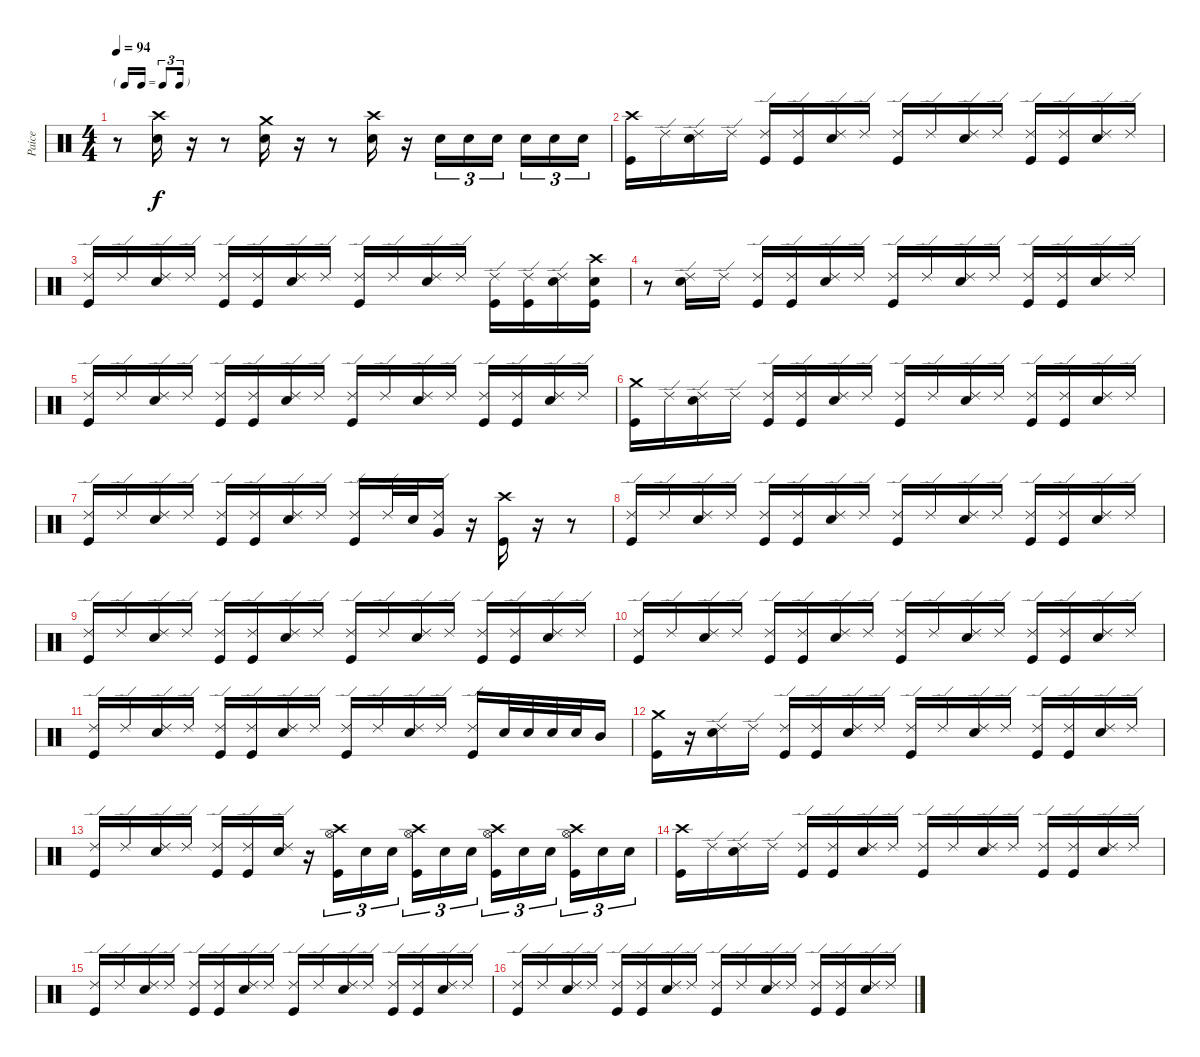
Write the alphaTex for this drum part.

\track ("Paice" "Paice") {instrument percussion}
\staff {score}
\articulation defaults
\ts (4 4)
\tf triplet16th
\tempo 94
\clef neutral
\ks c
r.8{dy f} ("Crash high (hit)" "Snare (hit) 2").16 r.16 r.8 ("Crash medium (hit)" "Snare (hit) 2").16 r.16 r.8 ("Crash high (hit)" "Snare (hit) 2").16 r.16 "Snare (hit) 2".16{tu (3 2)} "Snare (hit) 2".16{tu (3 2)} "Snare (hit) 2".16{tu (3 2) beam splitsecondary} "Snare (hit) 2".16{tu (3 2)} "Snare (hit) 2".16{tu (3 2)} "Snare (hit) 2".16{tu (3 2)} |
("Crash high (hit)" "Kick (hit)").16 "Ride (edge) 2".16 ("Ride (edge) 2" "Snare (hit) 2").16 "Ride (edge) 2".16 ("Ride (edge) 2" "Kick (hit)").16 ("Ride (edge) 2" "Kick (hit)").16 ("Ride (edge) 2" "Snare (hit) 2").16 "Ride (edge) 2".16 ("Ride (edge) 2" "Kick (hit)").16 "Ride (edge) 2".16 ("Ride (edge) 2" "Snare (hit) 2").16 "Ride (edge) 2".16 ("Ride (edge) 2" "Kick (hit)").16 ("Ride (edge) 2" "Kick (hit)").16 ("Ride (edge) 2" "Snare (hit) 2").16 "Ride (edge) 2".16 |
("Ride (edge) 2" "Kick (hit)").16 "Ride (edge) 2".16 ("Ride (edge) 2" "Snare (hit) 2").16 "Ride (edge) 2".16 ("Ride (edge) 2" "Kick (hit)").16 ("Ride (edge) 2" "Kick (hit)").16 ("Ride (edge) 2" "Snare (hit) 2").16 "Ride (edge) 2".16 ("Ride (edge) 2" "Kick (hit)").16 "Ride (edge) 2".16 ("Ride (edge) 2" "Snare (hit) 2").16 "Ride (edge) 2".16 ("Ride (edge) 2" "Kick (hit)").16 ("Ride (edge) 2" "Kick (hit)").16 ("Ride (edge) 2" "Snare (hit) 2").16 ("Crash high (hit)" "Snare (hit) 2" "Kick (hit)").16 |
r.8 ("Ride (edge) 2" "Snare (hit) 2").16 "Ride (edge) 2".16 ("Ride (edge) 2" "Kick (hit)").16 ("Ride (edge) 2" "Kick (hit)").16 ("Ride (edge) 2" "Snare (hit) 2").16 "Ride (edge) 2".16 ("Ride (edge) 2" "Kick (hit)").16 "Ride (edge) 2".16 ("Ride (edge) 2" "Snare (hit) 2").16 "Ride (edge) 2".16 ("Ride (edge) 2" "Kick (hit)").16 ("Ride (edge) 2" "Kick (hit)").16 ("Ride (edge) 2" "Snare (hit) 2").16 "Ride (edge) 2".16 |
("Ride (edge) 2" "Kick (hit)").16 "Ride (edge) 2".16 ("Ride (edge) 2" "Snare (hit) 2").16 "Ride (edge) 2".16 ("Ride (edge) 2" "Kick (hit)").16 ("Ride (edge) 2" "Kick (hit)").16 ("Ride (edge) 2" "Snare (hit) 2").16 "Ride (edge) 2".16 ("Ride (edge) 2" "Kick (hit)").16 "Ride (edge) 2".16 ("Ride (edge) 2" "Snare (hit) 2").16 "Ride (edge) 2".16 ("Ride (edge) 2" "Kick (hit)").16 ("Ride (edge) 2" "Kick (hit)").16 ("Ride (edge) 2" "Snare (hit) 2").16 "Ride (edge) 2".16 |
("Crash medium (hit)" "Kick (hit)").16 "Ride (edge) 2".16 ("Ride (edge) 2" "Snare (hit) 2").16 "Ride (edge) 2".16 ("Ride (edge) 2" "Kick (hit)").16 ("Ride (edge) 2" "Kick (hit)").16 ("Ride (edge) 2" "Snare (hit) 2").16 "Ride (edge) 2".16 ("Ride (edge) 2" "Kick (hit)").16 "Ride (edge) 2".16 ("Ride (edge) 2" "Snare (hit) 2").16 "Ride (edge) 2".16 ("Ride (edge) 2" "Kick (hit)").16 ("Ride (edge) 2" "Kick (hit)").16 ("Ride (edge) 2" "Snare (hit) 2").16 "Ride (edge) 2".16 |
("Ride (edge) 2" "Kick (hit)").16 "Ride (edge) 2".16 ("Ride (edge) 2" "Snare (hit) 2").16 "Ride (edge) 2".16 ("Ride (edge) 2" "Kick (hit)").16 ("Ride (edge) 2" "Kick (hit)").16 ("Ride (edge) 2" "Snare (hit) 2").16 "Ride (edge) 2".16 ("Ride (edge) 2" "Kick (hit)").16 "Ride (edge) 2".32 "Snare (hit) 2".32 ("Ride (edge) 2" "Very Low Tom (hit)").16 r.16 ("Crash high (hit)" "Kick (hit)").16 r.16 r.8 |
("Ride (edge) 2" "Kick (hit)").16 "Ride (edge) 2".16 ("Ride (edge) 2" "Snare (hit) 2").16 "Ride (edge) 2".16 ("Ride (edge) 2" "Kick (hit)").16 ("Ride (edge) 2" "Kick (hit)").16 ("Ride (edge) 2" "Snare (hit) 2").16 "Ride (edge) 2".16 ("Ride (edge) 2" "Kick (hit)").16 "Ride (edge) 2".16 ("Ride (edge) 2" "Snare (hit) 2").16 "Ride (edge) 2".16 ("Ride (edge) 2" "Kick (hit)").16 ("Ride (edge) 2" "Kick (hit)").16 ("Ride (edge) 2" "Snare (hit) 2").16 "Ride (edge) 2".16 |
("Ride (edge) 2" "Kick (hit)").16 "Ride (edge) 2".16 ("Ride (edge) 2" "Snare (hit) 2").16 "Ride (edge) 2".16 ("Ride (edge) 2" "Kick (hit)").16 ("Ride (edge) 2" "Kick (hit)").16 ("Ride (edge) 2" "Snare (hit) 2").16 "Ride (edge) 2".16 ("Ride (edge) 2" "Kick (hit)").16 "Ride (edge) 2".16 ("Ride (edge) 2" "Snare (hit) 2").16 "Ride (edge) 2".16 ("Ride (edge) 2" "Kick (hit)").16 ("Ride (edge) 2" "Kick (hit)").16 ("Ride (edge) 2" "Snare (hit) 2").16 "Ride (edge) 2".16 |
("Ride (edge) 2" "Kick (hit)").16 "Ride (edge) 2".16 ("Ride (edge) 2" "Snare (hit) 2").16 "Ride (edge) 2".16 ("Ride (edge) 2" "Kick (hit)").16 ("Ride (edge) 2" "Kick (hit)").16 ("Ride (edge) 2" "Snare (hit) 2").16 "Ride (edge) 2".16 ("Ride (edge) 2" "Kick (hit)").16 "Ride (edge) 2".16 ("Ride (edge) 2" "Snare (hit) 2").16 "Ride (edge) 2".16 ("Ride (edge) 2" "Kick (hit)").16 ("Ride (edge) 2" "Kick (hit)").16 ("Ride (edge) 2" "Snare (hit) 2").16 "Ride (edge) 2".16 |
("Ride (edge) 2" "Kick (hit)").16 "Ride (edge) 2".16 ("Ride (edge) 2" "Snare (hit) 2").16 "Ride (edge) 2".16 ("Ride (edge) 2" "Kick (hit)").16 ("Ride (edge) 2" "Kick (hit)").16 ("Ride (edge) 2" "Snare (hit) 2").16 "Ride (edge) 2".16 ("Ride (edge) 2" "Kick (hit)").16 "Ride (edge) 2".16 ("Ride (edge) 2" "Snare (hit) 2").16 "Ride (edge) 2".16 ("Ride (edge) 2" "Kick (hit)").16 "Snare (hit) 2".32 "Snare (hit) 2".32 "Snare (hit) 2".32 "Snare (hit) 2".32 "Mid Tom (hit)".16 |
("Crash medium (hit)" "Kick (hit)").16 r.16 ("Ride (edge) 2" "Snare (hit) 2").16 "Ride (edge) 2".16 ("Ride (edge) 2" "Kick (hit)").16 ("Ride (edge) 2" "Kick (hit)").16 ("Ride (edge) 2" "Snare (hit) 2").16 "Ride (edge) 2".16 ("Ride (edge) 2" "Kick (hit)").16 "Ride (edge) 2".16 ("Ride (edge) 2" "Snare (hit) 2").16 "Ride (edge) 2".16 ("Ride (edge) 2" "Kick (hit)").16 ("Ride (edge) 2" "Kick (hit)").16 ("Ride (edge) 2" "Snare (hit) 2").16 "Ride (edge) 2".16 |
("Ride (edge) 2" "Kick (hit)").16 "Ride (edge) 2".16 ("Ride (edge) 2" "Snare (hit) 2").16 "Ride (edge) 2".16 ("Ride (edge) 2" "Kick (hit)").16 ("Ride (edge) 2" "Kick (hit)").16 ("Ride (edge) 2" "Snare (hit) 2").16 r.16 ("Crash high (hit)" "Hi-Hat (open)" "Kick (hit)").16{tu (3 2)} "Snare (hit) 2".16{tu (3 2)} "Snare (hit) 2".16{tu (3 2) beam splitsecondary} ("Crash high (hit)" "Hi-Hat (open)" "Kick (hit)").16{tu (3 2)} "Snare (hit) 2".16{tu (3 2)} "Snare (hit) 2".16{tu (3 2)} ("Crash high (hit)" "Hi-Hat (open)" "Kick (hit)").16{tu (3 2)} "Snare (hit) 2".16{tu (3 2)} "Snare (hit) 2".16{tu (3 2) beam splitsecondary} ("Crash high (hit)" "Hi-Hat (open)" "Kick (hit)").16{tu (3 2)} "Snare (hit) 2".16{tu (3 2)} "Snare (hit) 2".16{tu (3 2)} |
("Crash high (hit)" "Kick (hit)").16 "Ride (edge) 2".16 ("Ride (edge) 2" "Snare (hit) 2").16 "Ride (edge) 2".16 ("Ride (edge) 2" "Kick (hit)").16 ("Ride (edge) 2" "Kick (hit)").16 ("Ride (edge) 2" "Snare (hit) 2").16 "Ride (edge) 2".16 ("Ride (edge) 2" "Kick (hit)").16 "Ride (edge) 2".16 ("Ride (edge) 2" "Snare (hit) 2").16 "Ride (edge) 2".16 ("Ride (edge) 2" "Kick (hit)").16 ("Ride (edge) 2" "Kick (hit)").16 ("Ride (edge) 2" "Snare (hit) 2").16 "Ride (edge) 2".16 |
("Ride (edge) 2" "Kick (hit)").16 "Ride (edge) 2".16 ("Ride (edge) 2" "Snare (hit) 2").16 "Ride (edge) 2".16 ("Ride (edge) 2" "Kick (hit)").16 ("Ride (edge) 2" "Kick (hit)").16 ("Ride (edge) 2" "Snare (hit) 2").16 "Ride (edge) 2".16 ("Ride (edge) 2" "Kick (hit)").16 "Ride (edge) 2".16 ("Ride (edge) 2" "Snare (hit) 2").16 "Ride (edge) 2".16 ("Ride (edge) 2" "Kick (hit)").16 ("Ride (edge) 2" "Kick (hit)").16 ("Ride (edge) 2" "Snare (hit) 2").16 "Ride (edge) 2".16 |
("Ride (edge) 2" "Kick (hit)").16 "Ride (edge) 2".16 ("Ride (edge) 2" "Snare (hit) 2").16 "Ride (edge) 2".16 ("Ride (edge) 2" "Kick (hit)").16 ("Ride (edge) 2" "Kick (hit)").16 ("Ride (edge) 2" "Snare (hit) 2").16 "Ride (edge) 2".16 ("Ride (edge) 2" "Kick (hit)").16 "Ride (edge) 2".16 ("Ride (edge) 2" "Snare (hit) 2").16 "Ride (edge) 2".16 ("Ride (edge) 2" "Kick (hit)").16 ("Ride (edge) 2" "Kick (hit)").16 ("Ride (edge) 2" "Snare (hit) 2").16 "Ride (edge) 2".16
